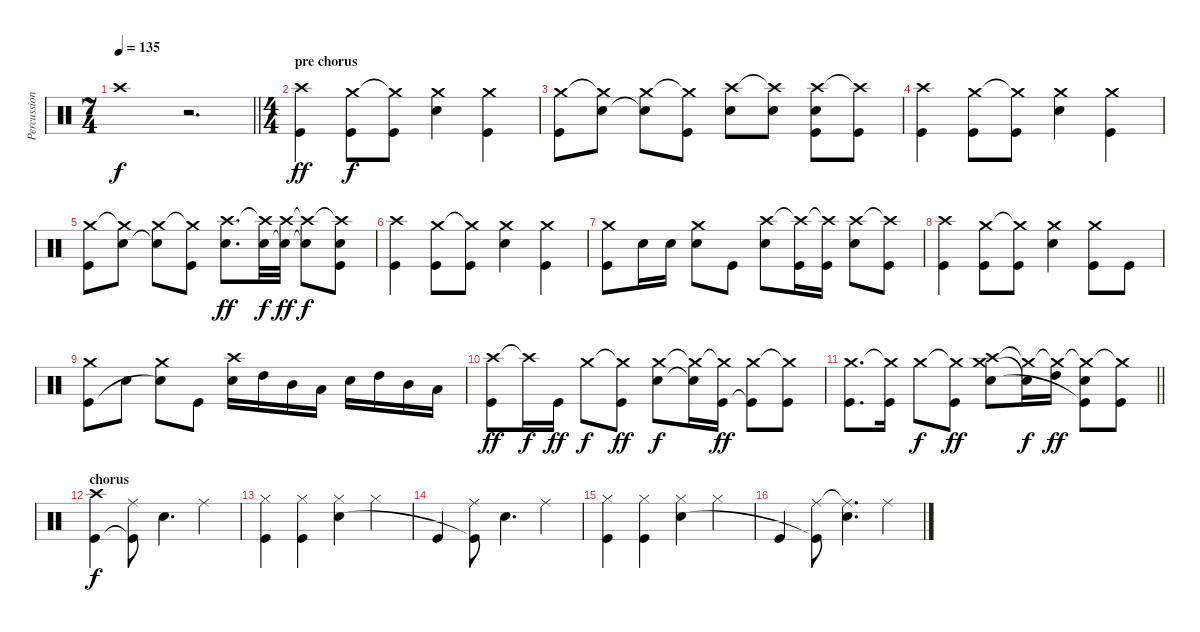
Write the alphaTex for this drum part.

\track ("Percussion" "Percussion") {instrument percussion}
\staff {score}
\articulation defaults
\ts (7 4)
\tempo 135
\clef neutral
\barLineRight lightlight
\ks c "Crash high (hit)".1{dy f}
r.2{d} |
\ts (4 4)
\section ("" "pre chorus")
("Crash high (hit)" "Kick (hit)").4{dy ff} ("Crash medium (hit)" "Kick (hit)").8{dy f} ("Crash medium (hit)"{t} "Kick (hit)").8 ("Crash medium (hit)" "Electric Snare (hit)").4 ("Crash medium (hit)" "Kick (hit)").4 |
("Crash medium (hit)" "Kick (hit)").8 ("Crash medium (hit)"{t} "Electric Snare (hit)").8 ("Crash medium (hit)" "Electric Snare (hit)"{t}).8 ("Crash medium (hit)"{t} "Kick (hit)").8 ("Crash high (hit)" "Electric Snare (hit)").8 ("Crash high (hit)"{t} "Electric Snare (hit)").8 ("Crash high (hit)" "Electric Snare (hit)" "Kick (hit)").8 ("Crash high (hit)"{t} "Kick (hit)").8 |
("Crash high (hit)" "Kick (hit)").4 ("Crash medium (hit)" "Kick (hit)").8 ("Crash medium (hit)"{t} "Kick (hit)").8 ("Crash medium (hit)" "Electric Snare (hit)").4 ("Crash medium (hit)" "Kick (hit)").4 |
("Crash medium (hit)" "Kick (hit)").8 ("Crash medium (hit)"{t} "Electric Snare (hit)").8 ("Crash medium (hit)" "Electric Snare (hit)"{t}).8 ("Crash medium (hit)"{t} "Kick (hit)").8 ("Crash high (hit)" "Electric Snare (hit)").8{d dy ff} ("Crash high (hit)"{t} "Electric Snare (hit)").32{dy f} ("Crash high (hit)" "Electric Snare (hit)"{t}).32{dy ff} ("Crash high (hit)"{t} "Electric Snare (hit)"{t}).8{dy f} ("Crash high (hit)"{t} "Electric Snare (hit)" "Kick (hit)").8 |
("Crash high (hit)" "Kick (hit)").4 ("Crash medium (hit)" "Kick (hit)").8 ("Crash medium (hit)"{t} "Kick (hit)").8 ("Crash medium (hit)" "Electric Snare (hit)").4 ("Crash medium (hit)" "Kick (hit)").4 |
("Crash medium (hit)" "Kick (hit)").8 "Electric Snare (hit)".16 "Electric Snare (hit)".16 ("Crash medium (hit)" "Electric Snare (hit)").8 "Kick (hit)".8 ("Crash high (hit)" "Electric Snare (hit)").8 ("Crash high (hit)"{t} "Kick (hit)").16 ("Crash high (hit)"{t} "Kick (hit)").16 ("Crash high (hit)" "Electric Snare (hit)").8 ("Crash high (hit)"{t} "Kick (hit)").8 |
("Crash high (hit)" "Kick (hit)").4 ("Crash medium (hit)" "Kick (hit)").8 ("Crash medium (hit)"{t} "Kick (hit)").8 ("Crash medium (hit)" "Electric Snare (hit)").4 ("Crash medium (hit)" "Kick (hit)").8 "Kick (hit)".8 |
("Crash medium (hit)" "Kick (hit)").8 "Electric Snare (hit)".8 ("Crash medium (hit)" "Electric Snare (hit)"{t}).8 "Kick (hit)".8 ("Crash high (hit)" "Electric Snare (hit)").16 "High Tom (hit)".16 "Mid Tom (hit)".16 "Low Tom (hit)".16 "Electric Snare (hit)".16 "High Tom (hit)".16 "Mid Tom (hit)".16 "Low Tom (hit)".16 |
("Crash high (hit)" "Kick (hit)").8{dy ff} "Crash high (hit)"{t}.16{dy f} "Kick (hit)".16{dy ff} "Crash medium (hit)".8{dy f} ("Crash medium (hit)"{t} "Kick (hit)").8{dy ff} ("Crash medium (hit)" "Electric Snare (hit)").8{dy f} ("Crash medium (hit)"{t} "Electric Snare (hit)"{t}).16 ("Crash medium (hit)"{t} "Kick (hit)").16{dy ff} ("Crash medium (hit)" "Kick (hit)"{t}).8 ("Crash medium (hit)"{t} "Kick (hit)").8 |
\barLineRight lightlight
("Crash medium (hit)" "Kick (hit)").8{d} ("Crash medium (hit)"{t} "Kick (hit)").16 "Crash medium (hit)".8{dy f} ("Crash medium (hit)"{t} "Kick (hit)").8{dy ff} ("Crash high (hit)" "Crash medium (hit)" "Electric Snare (hit)").8 ("Crash medium (hit)"{t} "Electric Snare (hit)"{t}).16{dy f} ("Crash medium (hit)"{t} "High Tom (hit)").16{dy ff} ("Crash medium (hit)"{t} "Electric Snare (hit)" "Kick (hit)"{t}).8 ("Crash medium (hit)"{t} "Kick (hit)").8 |
\section ("" "chorus")
("Crash high (hit)" "Kick (hit)").4{dy f} ("Ride (middle)" "Kick (hit)"{t}).8 "Electric Snare (hit)".4{d} "Ride (middle)".4 |
("Hi-Hat (closed)" "Kick (hit)").4 ("Hi-Hat (closed)" "Kick (hit)").4 ("Hi-Hat (closed)" "Electric Snare (hit)").4 "Hi-Hat (closed)".4 |
"Kick (hit)".4 ("Ride (middle)" "Kick (hit)"{t}).8 "Electric Snare (hit)".4{d} "Ride (middle)".4 |
("Hi-Hat (closed)" "Kick (hit)").4 ("Hi-Hat (closed)" "Kick (hit)").4 ("Hi-Hat (closed)" "Electric Snare (hit)").4 "Hi-Hat (closed)".4 |
"Kick (hit)".4 ("Ride (middle)" "Kick (hit)"{t}).8 ("Ride (middle)"{t} "Electric Snare (hit)").4{d} "Ride (middle)".4
